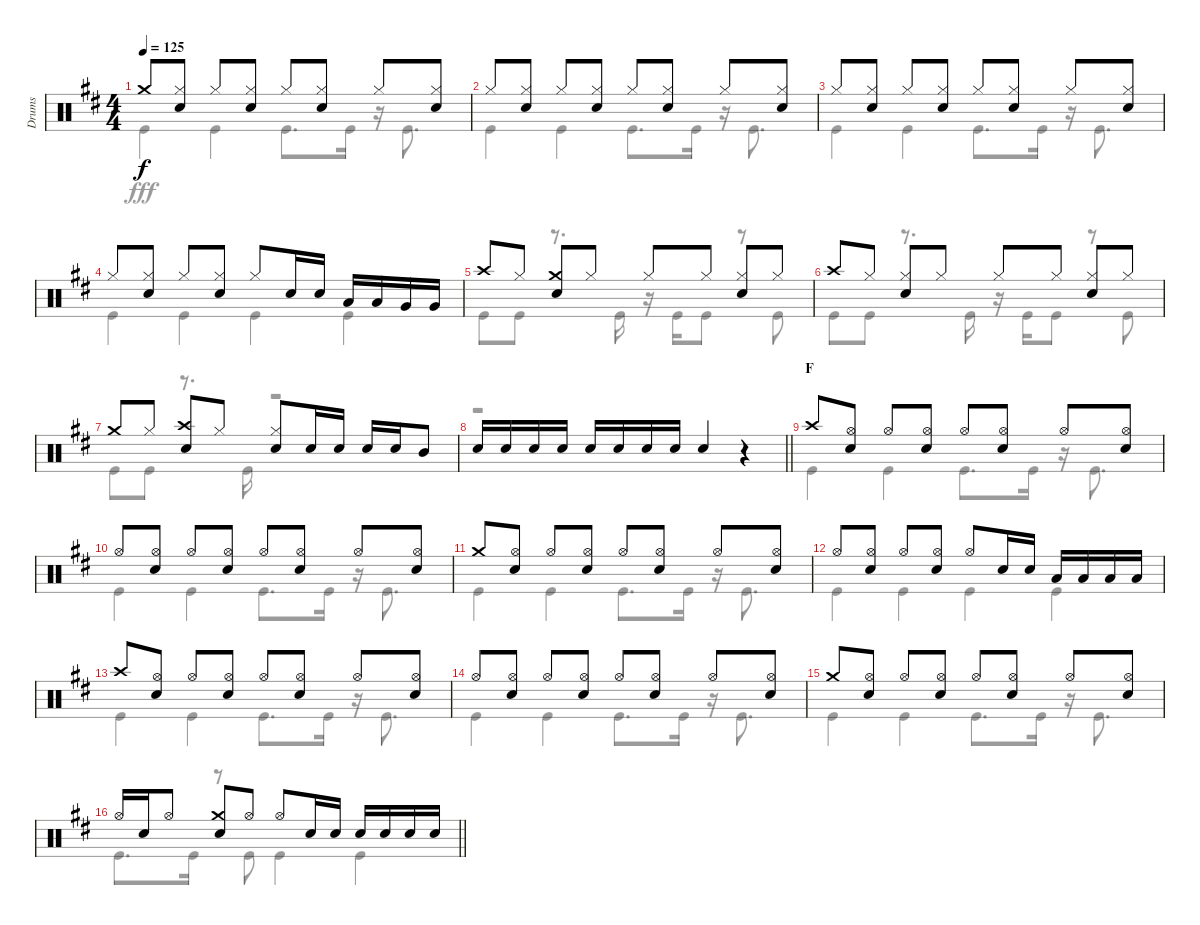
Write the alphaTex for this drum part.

\track ("Drums" "Drums") {instrument percussion}
\staff {score}
\articulation defaults
\voice
\ts (4 4)
\tempo 125
\clef neutral
\ks d "Crash medium (hit)".8{dy f}
("Hi-Hat (closed)" "Snare (hit) 2").8 "Hi-Hat (closed)".8 ("Hi-Hat (closed)" "Snare (hit) 2").8 "Hi-Hat (closed)".8 ("Hi-Hat (closed)" "Snare (hit) 2").8 "Hi-Hat (closed)".8 ("Hi-Hat (closed)" "Snare (hit) 2").8 |
"Hi-Hat (closed)".8 ("Hi-Hat (closed)" "Snare (hit) 2").8 "Hi-Hat (closed)".8 ("Hi-Hat (closed)" "Snare (hit) 2").8 "Hi-Hat (closed)".8 ("Hi-Hat (closed)" "Snare (hit) 2").8 "Hi-Hat (closed)".8 ("Hi-Hat (closed)" "Snare (hit) 2").8 |
"Hi-Hat (closed)".8 ("Hi-Hat (closed)" "Snare (hit) 2").8 "Hi-Hat (closed)".8 ("Hi-Hat (closed)" "Snare (hit) 2").8 "Hi-Hat (closed)".8 ("Hi-Hat (closed)" "Snare (hit) 2").8 "Hi-Hat (closed)".8 ("Hi-Hat (closed)" "Snare (hit) 2").8 |
"Hi-Hat (closed)".8 ("Hi-Hat (closed)" "Snare (hit) 2").8 "Hi-Hat (closed)".8 ("Hi-Hat (closed)" "Snare (hit) 2").8 "Hi-Hat (closed)".8 "Snare (hit) 2".16 "Snare (hit) 2".16 "Low Tom (hit)".16 "Low Tom (hit)".16 "Very Low Tom (hit)".16 "Very Low Tom (hit)".16 |
"Crash high (hit)".8 "Hi-Hat (closed)".8 ("Crash medium (hit)" "Snare (hit) 2").8 "Hi-Hat (closed)".8 "Hi-Hat (closed)".8 "Hi-Hat (closed)".8 ("Hi-Hat (closed)" "Snare (hit) 2").8 "Hi-Hat (closed)".8 |
"Crash high (hit)".8 "Hi-Hat (closed)".8 ("Hi-Hat (closed)" "Snare (hit) 2").8 "Hi-Hat (closed)".8 "Hi-Hat (closed)".8 "Hi-Hat (closed)".8 ("Hi-Hat (closed)" "Snare (hit) 2").8 "Hi-Hat (closed)".8 |
"Crash medium (hit)".8 "Hi-Hat (closed)".8 ("Crash high (hit)" "Snare (hit) 2").8 "Hi-Hat (closed)".8 ("Hi-Hat (closed)" "Snare (hit) 2").8 "Snare (hit) 2".16 "Snare (hit) 2".16 "Snare (hit) 2".16 "Snare (hit) 2".16 "Mid Tom (hit)".8 |
\barLineRight lightlight "Snare (hit) 2".16 "Snare (hit) 2".16 "Snare (hit) 2".16 "Snare (hit) 2".16 "Snare (hit) 2".16 "Snare (hit) 2".16 "Snare (hit) 2".16 "Snare (hit) 2".16 "Snare (hit) 2".4
r.4 |
\section ("" "F")
"Crash high (hit)".8 ("Hi-Hat (open)" "Snare (hit) 2").8 "Hi-Hat (open)".8 ("Hi-Hat (open)" "Snare (hit) 2").8 "Hi-Hat (open)".8 ("Hi-Hat (open)" "Snare (hit) 2").8 "Hi-Hat (open)".8 ("Hi-Hat (open)" "Snare (hit) 2").8 |
"Hi-Hat (open)".8 ("Hi-Hat (open)" "Snare (hit) 2").8 "Hi-Hat (open)".8 ("Hi-Hat (open)" "Snare (hit) 2").8 "Hi-Hat (open)".8 ("Hi-Hat (open)" "Snare (hit) 2").8 "Hi-Hat (open)".8 ("Hi-Hat (open)" "Snare (hit) 2").8 |
"Crash medium (hit)".8 ("Hi-Hat (open)" "Snare (hit) 2").8 "Hi-Hat (open)".8 ("Hi-Hat (open)" "Snare (hit) 2").8 "Hi-Hat (open)".8 ("Hi-Hat (open)" "Snare (hit) 2").8 "Hi-Hat (open)".8 ("Hi-Hat (open)" "Snare (hit) 2").8 |
"Hi-Hat (open)".8 ("Hi-Hat (open)" "Snare (hit) 2").8 "Hi-Hat (open)".8 ("Hi-Hat (open)" "Snare (hit) 2").8 "Hi-Hat (open)".8 "Snare (hit) 2".16 "Snare (hit) 2".16 "Low Tom (hit)".16 "Low Tom (hit)".16 "Low Tom (hit)".16 "Low Tom (hit)".16 |
"Crash high (hit)".8 ("Hi-Hat (open)" "Snare (hit) 2").8 "Hi-Hat (open)".8 ("Hi-Hat (open)" "Snare (hit) 2").8 "Hi-Hat (open)".8 ("Hi-Hat (open)" "Snare (hit) 2").8 "Hi-Hat (open)".8 ("Hi-Hat (open)" "Snare (hit) 2").8 |
"Hi-Hat (open)".8 ("Hi-Hat (open)" "Snare (hit) 2").8 "Hi-Hat (open)".8 ("Hi-Hat (open)" "Snare (hit) 2").8 "Hi-Hat (open)".8 ("Hi-Hat (open)" "Snare (hit) 2").8 "Hi-Hat (open)".8 ("Hi-Hat (open)" "Snare (hit) 2").8 |
"Crash medium (hit)".8 ("Hi-Hat (open)" "Snare (hit) 2").8 "Hi-Hat (open)".8 ("Hi-Hat (open)" "Snare (hit) 2").8 "Hi-Hat (open)".8 ("Hi-Hat (open)" "Snare (hit) 2").8 "Hi-Hat (open)".8 ("Hi-Hat (open)" "Snare (hit) 2").8 |
\barLineRight lightlight "Hi-Hat (open)".16 "Snare (hit) 2".16 "Hi-Hat (open)".8
("Crash medium (hit)" "Snare (hit) 2").8 "Hi-Hat (open)".8 "Hi-Hat (open)".8 "Snare (hit) 2".16 "Snare (hit) 2".16 "Snare (hit) 2".16 "Snare (hit) 2".16 "Snare (hit) 2".16 "Snare (hit) 2".16
\voice
\clef neutral
\ottava regular
\simile none
\ks d "Kick (hit)".4{dy fff} "Kick (hit)".4 "Kick (hit)".8{d} "Kick (hit)".16
r.16 "Kick (hit)".8{d} |
"Kick (hit)".4 "Kick (hit)".4 "Kick (hit)".8{d} "Kick (hit)".16 r.16 "Kick (hit)".8{d} |
"Kick (hit)".4 "Kick (hit)".4 "Kick (hit)".8{d} "Kick (hit)".16 r.16 "Kick (hit)".8{d} |
"Kick (hit)".4 "Kick (hit)".4 "Kick (hit)".4 "Kick (hit)".4 |
"Kick (hit)".8 "Kick (hit)".8 r.8{d} "Kick (hit)".16 r.16 "Kick (hit)".16 "Kick (hit)".8 r.8 "Kick (hit)".8 |
"Kick (hit)".8 "Kick (hit)".8 r.8{d} "Kick (hit)".16 r.16 "Kick (hit)".16 "Kick (hit)".8 r.8 "Kick (hit)".8 |
"Kick (hit)".8 "Kick (hit)".8 r.8{d} "Kick (hit)".16 r.2 |
\barLineRight lightlight
r.1 |
"Kick (hit)".4 "Kick (hit)".4 "Kick (hit)".8{d} "Kick (hit)".16 r.16 "Kick (hit)".8{d} |
"Kick (hit)".4 "Kick (hit)".4 "Kick (hit)".8{d} "Kick (hit)".16 r.16 "Kick (hit)".8{d} |
"Kick (hit)".4 "Kick (hit)".4 "Kick (hit)".8{d} "Kick (hit)".16 r.16 "Kick (hit)".8{d} |
"Kick (hit)".4 "Kick (hit)".4 "Kick (hit)".4 "Kick (hit)".4 |
"Kick (hit)".4 "Kick (hit)".4 "Kick (hit)".8{d} "Kick (hit)".16 r.16 "Kick (hit)".8{d} |
"Kick (hit)".4 "Kick (hit)".4 "Kick (hit)".8{d} "Kick (hit)".16 r.16 "Kick (hit)".8{d} |
"Kick (hit)".4 "Kick (hit)".4 "Kick (hit)".8{d} "Kick (hit)".16 r.16 "Kick (hit)".8{d} |
\barLineRight lightlight "Kick (hit)".8{d} "Kick (hit)".16
r.8 "Kick (hit)".8 "Kick (hit)".4 "Kick (hit)".4
